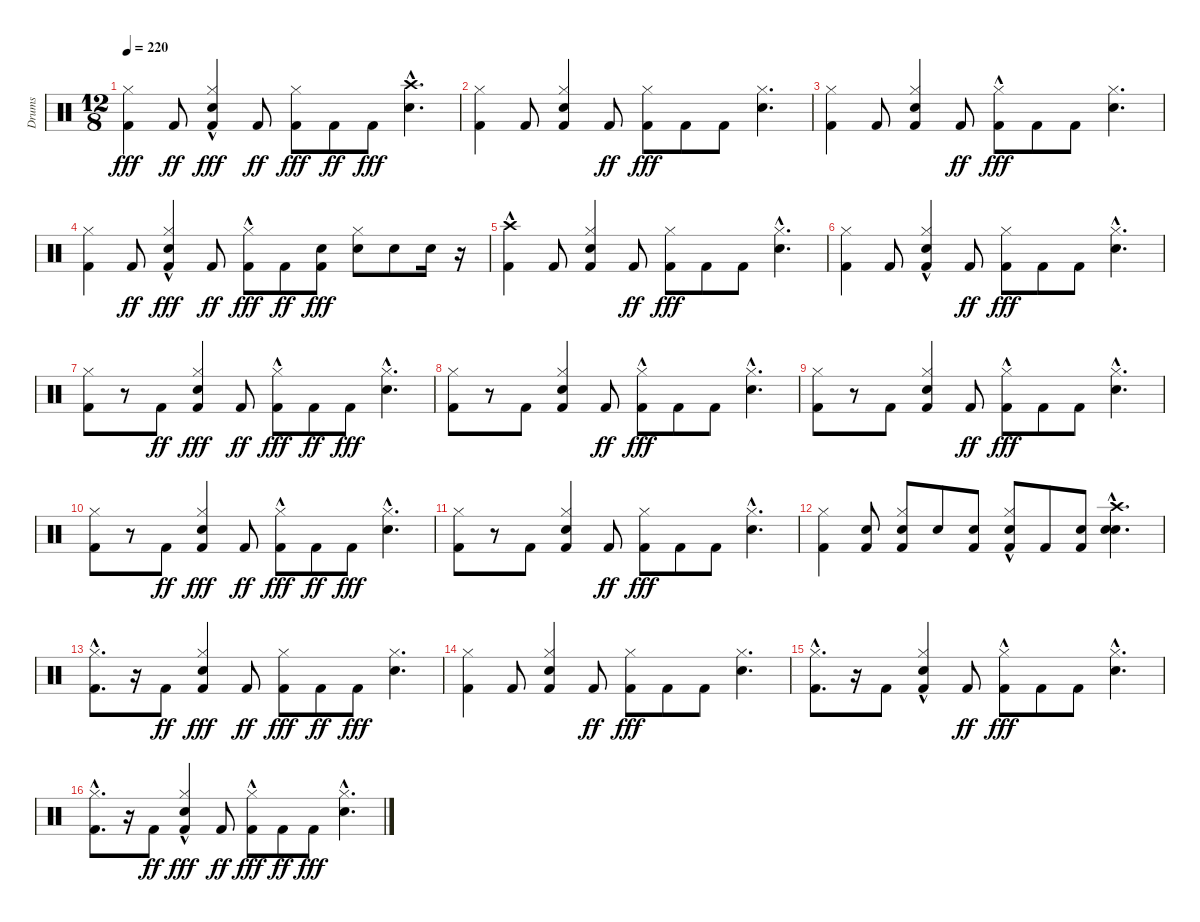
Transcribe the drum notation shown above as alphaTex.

\track ("Drums" "Drums") {instrument percussion}
\staff {score}
\articulation defaults
\ts (12 8)
\tempo 220
\clef neutral
\ks c
("Kick (hit) 2" "Hi-Hat (closed)").4{dy fff} "Kick (hit) 2".8{dy ff} ("Kick (hit) 2" "Snare (hit) 2" "Hi-Hat (closed)"{hac}).4{dy fff} "Kick (hit) 2".8{dy ff} ("Kick (hit) 2" "Hi-Hat (closed)").8{dy fff} "Kick (hit) 2".8{dy ff} "Kick (hit) 2".8{dy fff} ("Snare (hit) 2" "Crash high (hit)"{hac}).4{d} |
("Kick (hit) 2" "Hi-Hat (closed)").4 "Kick (hit) 2".8 ("Kick (hit) 2" "Snare (hit) 2" "Hi-Hat (closed)").4 "Kick (hit) 2".8{dy ff} ("Kick (hit) 2" "Hi-Hat (closed)").8{dy fff} "Kick (hit) 2".8 "Kick (hit) 2".8 ("Snare (hit) 2" "Hi-Hat (closed)").4{d} |
("Kick (hit) 2" "Hi-Hat (closed)").4 "Kick (hit) 2".8 ("Kick (hit) 2" "Snare (hit) 2" "Hi-Hat (closed)").4 "Kick (hit) 2".8{dy ff} ("Kick (hit) 2" "Hi-Hat (closed)"{hac}).8{dy fff} "Kick (hit) 2".8 "Kick (hit) 2".8 ("Snare (hit) 2" "Hi-Hat (closed)").4{d} |
("Kick (hit) 2" "Hi-Hat (closed)").4 "Kick (hit) 2".8{dy ff} ("Kick (hit) 2" "Snare (hit) 2" "Hi-Hat (closed)"{hac}).4{dy fff} "Kick (hit) 2".8{dy ff} ("Kick (hit) 2" "Hi-Hat (closed)"{hac}).8{dy fff} "Kick (hit) 2".8{dy ff} ("Kick (hit) 2" "Snare (hit) 2").8{dy fff} ("Snare (hit) 2" "Hi-Hat (closed)").8 "Snare (hit) 2".8 "Snare (hit) 2".16 r.16 |
("Kick (hit) 2" "Crash high (hit)"{hac}).4 "Kick (hit) 2".8 ("Kick (hit) 2" "Snare (hit) 2" "Hi-Hat (closed)").4 "Kick (hit) 2".8{dy ff} ("Kick (hit) 2" "Hi-Hat (closed)").8{dy fff} "Kick (hit) 2".8 "Kick (hit) 2".8 ("Snare (hit) 2" "Hi-Hat (closed)"{hac}).4{d} |
("Kick (hit) 2" "Hi-Hat (closed)").4 "Kick (hit) 2".8 ("Kick (hit) 2" "Snare (hit) 2" "Hi-Hat (closed)"{hac}).4 "Kick (hit) 2".8{dy ff} ("Kick (hit) 2" "Hi-Hat (closed)").8{dy fff} "Kick (hit) 2".8 "Kick (hit) 2".8 ("Snare (hit) 2" "Hi-Hat (closed)"{hac}).4{d} |
("Kick (hit) 2" "Hi-Hat (closed)").8 r.8 "Kick (hit) 2".8{dy ff} ("Kick (hit) 2" "Snare (hit) 2" "Hi-Hat (closed)").4{dy fff} "Kick (hit) 2".8{dy ff} ("Kick (hit) 2" "Hi-Hat (closed)"{hac}).8{dy fff} "Kick (hit) 2".8{dy ff} "Kick (hit) 2".8{dy fff} ("Snare (hit) 2" "Hi-Hat (closed)"{hac}).4{d} |
("Kick (hit) 2" "Hi-Hat (closed)").8 r.8 "Kick (hit) 2".8 ("Kick (hit) 2" "Snare (hit) 2" "Hi-Hat (closed)").4 "Kick (hit) 2".8{dy ff} ("Kick (hit) 2" "Hi-Hat (closed)"{hac}).8{dy fff} "Kick (hit) 2".8 "Kick (hit) 2".8 ("Snare (hit) 2" "Hi-Hat (closed)"{hac}).4{d} |
("Kick (hit) 2" "Hi-Hat (closed)").8 r.8 "Kick (hit) 2".8 ("Kick (hit) 2" "Snare (hit) 2" "Hi-Hat (closed)").4 "Kick (hit) 2".8{dy ff} ("Kick (hit) 2" "Hi-Hat (closed)"{hac}).8{dy fff} "Kick (hit) 2".8 "Kick (hit) 2".8 ("Snare (hit) 2" "Hi-Hat (closed)"{hac}).4{d} |
("Kick (hit) 2" "Hi-Hat (closed)").8 r.8 "Kick (hit) 2".8{dy ff} ("Kick (hit) 2" "Snare (hit) 2" "Hi-Hat (closed)").4{dy fff} "Kick (hit) 2".8{dy ff} ("Kick (hit) 2" "Hi-Hat (closed)"{hac}).8{dy fff} "Kick (hit) 2".8{dy ff} "Kick (hit) 2".8{dy fff} ("Snare (hit) 2" "Hi-Hat (closed)"{hac}).4{d} |
("Kick (hit) 2" "Hi-Hat (closed)").8 r.8 "Kick (hit) 2".8 ("Kick (hit) 2" "Snare (hit) 2" "Hi-Hat (closed)").4 "Kick (hit) 2".8{dy ff} ("Kick (hit) 2" "Hi-Hat (closed)").8{dy fff} "Kick (hit) 2".8 "Kick (hit) 2".8 ("Snare (hit) 2"{hac} "Hi-Hat (closed)"{hac}).4{d} |
("Kick (hit) 2" "Hi-Hat (closed)").4 ("Kick (hit) 2" "Snare (hit) 2").8 ("Kick (hit) 2" "Snare (hit) 2" "Hi-Hat (closed)").8 "Snare (hit) 2".8 ("Kick (hit) 2" "Snare (hit) 2").8 ("Kick (hit) 2" "Snare (hit) 2"{hac} "Hi-Hat (closed)").8 "Kick (hit) 2".8 ("Kick (hit) 2" "Snare (hit) 2").8 ("Snare (hit) 2"{hac} "Snare (hit) 2"{hac} "Crash high (hit)"{hac}).4{d} |
("Kick (hit) 2" "Hi-Hat (closed)"{hac}).8{d} r.16 "Kick (hit) 2".8{dy ff} ("Kick (hit) 2" "Snare (hit) 2" "Hi-Hat (closed)").4{dy fff} "Kick (hit) 2".8{dy ff} ("Kick (hit) 2" "Hi-Hat (closed)").8{dy fff} "Kick (hit) 2".8{dy ff} "Kick (hit) 2".8{dy fff} ("Snare (hit) 2" "Hi-Hat (closed)").4{d} |
("Kick (hit) 2" "Hi-Hat (closed)").4 "Kick (hit) 2".8 ("Kick (hit) 2" "Snare (hit) 2" "Hi-Hat (closed)").4 "Kick (hit) 2".8{dy ff} ("Kick (hit) 2" "Hi-Hat (closed)").8{dy fff} "Kick (hit) 2".8 "Kick (hit) 2".8 ("Snare (hit) 2" "Hi-Hat (closed)").4{d} |
("Kick (hit) 2" "Hi-Hat (closed)"{hac}).8{d} r.16 "Kick (hit) 2".8 ("Kick (hit) 2" "Snare (hit) 2" "Hi-Hat (closed)"{hac}).4 "Kick (hit) 2".8{dy ff} ("Kick (hit) 2" "Hi-Hat (closed)"{hac}).8{dy fff} "Kick (hit) 2".8 "Kick (hit) 2".8 ("Snare (hit) 2" "Hi-Hat (closed)"{hac}).4{d} |
("Kick (hit) 2" "Hi-Hat (closed)"{hac}).8{d} r.16 "Kick (hit) 2".8{dy ff} ("Kick (hit) 2" "Snare (hit) 2" "Hi-Hat (closed)"{hac}).4{dy fff} "Kick (hit) 2".8{dy ff} ("Kick (hit) 2" "Hi-Hat (closed)"{hac}).8{dy fff} "Kick (hit) 2".8{dy ff} "Kick (hit) 2".8{dy fff} ("Snare (hit) 2" "Hi-Hat (closed)"{hac}).4{d}
